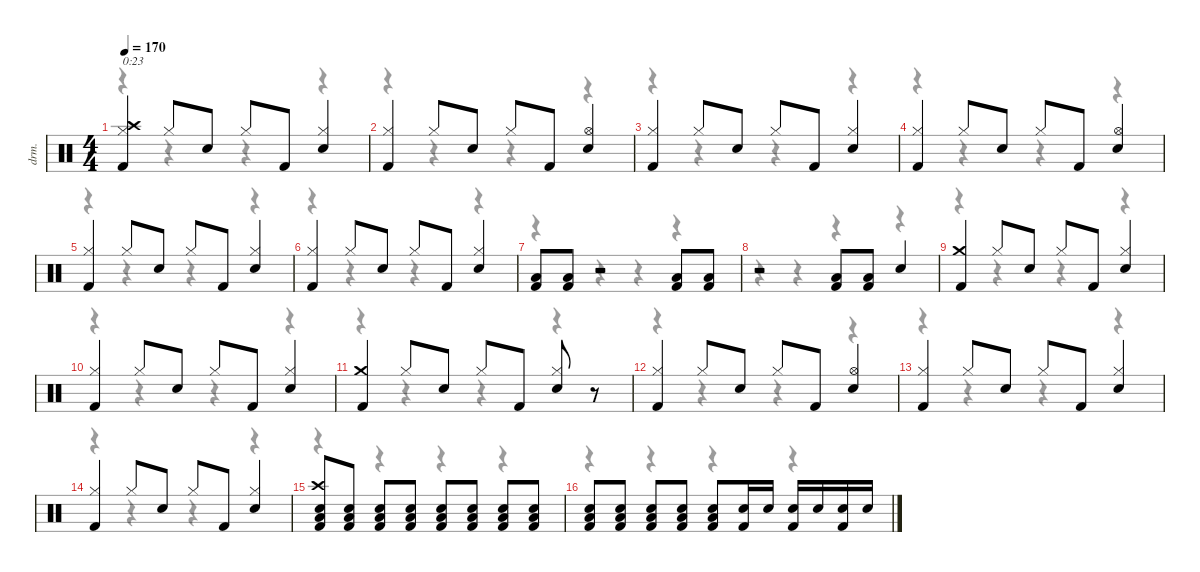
\defaultSystemsLayout 4
\hideDynamics
\bracketExtendMode nobrackets
\otherSystemsTrackNameOrientation horizontal
\track ("Drums" "drm.") {instrument percussion}
\staff {score}
\articulation defaults
\voice
\ts (4 4)
\tempo 170
\clef neutral
\ks c
("Hi-Hat (closed)" "Crash high (hit)" "Kick (hit) 2").4{txt "0:23" dy f beam Up} "Hi-Hat (closed)".8{beam Up} "Snare (hit) 2".8{beam Up} "Hi-Hat (closed)".8{beam Up} "Kick (hit) 2".8{beam Up} ("Hi-Hat (closed)" "Snare (hit) 2").4{beam Up} |
("Hi-Hat (closed)" "Kick (hit) 2").4{beam Up} "Hi-Hat (closed)".8{beam Up} "Snare (hit) 2".8{beam Up} "Hi-Hat (closed)".8{beam Up} "Kick (hit) 2".8{beam Up} ("Hi-Hat (open)" "Snare (hit) 2").4{beam Up} |
("Hi-Hat (closed)" "Kick (hit) 2").4{beam Up} "Hi-Hat (closed)".8{beam Up} "Snare (hit) 2".8{beam Up} "Hi-Hat (closed)".8{beam Up} "Kick (hit) 2".8{beam Up} ("Hi-Hat (closed)" "Snare (hit) 2").4{beam Up} |
("Hi-Hat (closed)" "Kick (hit) 2").4{beam Up} "Hi-Hat (closed)".8{beam Up} "Snare (hit) 2".8{beam Up} "Hi-Hat (closed)".8{beam Up} "Kick (hit) 2".8{beam Up} ("Hi-Hat (open)" "Snare (hit) 2").4{beam Up} |
("Hi-Hat (closed)" "Kick (hit) 2").4{beam Up} "Hi-Hat (closed)".8{beam Up} "Snare (hit) 2".8{beam Up} "Hi-Hat (closed)".8{beam Up} "Kick (hit) 2".8{beam Up} ("Hi-Hat (closed)" "Snare (hit) 2").4{beam Up} |
("Hi-Hat (closed)" "Kick (hit) 2").4{beam Up} "Hi-Hat (closed)".8{beam Up} "Snare (hit) 2".8{beam Up} "Hi-Hat (closed)".8{beam Up} "Kick (hit) 2".8{beam Up} ("Hi-Hat (closed)" "Snare (hit) 2").4{beam Up} |
("Low Floor Tom (hit)" "Kick (hit) 2").8{beam Up} ("Low Floor Tom (hit)" "Kick (hit) 2").8{beam Up} r.2{beam Up} ("Low Floor Tom (hit)" "Kick (hit) 2").8{beam Up} ("Low Floor Tom (hit)" "Kick (hit) 2").8{beam Up} |
r.2{beam Up} ("Low Floor Tom (hit)" "Kick (hit) 2").8{beam Up} ("Low Floor Tom (hit)" "Kick (hit) 2").8{beam Up} "Snare (hit) 2".4{beam Up} |
("Crash medium (hit)" "Kick (hit) 2").4{beam Up} "Hi-Hat (closed)".8{beam Up} "Snare (hit) 2".8{beam Up} "Hi-Hat (closed)".8{beam Up} "Kick (hit) 2".8{beam Up} ("Hi-Hat (closed)" "Snare (hit) 2").4{beam Up} |
("Hi-Hat (closed)" "Kick (hit) 2").4{beam Up} "Hi-Hat (closed)".8{beam Up} "Snare (hit) 2".8{beam Up} "Hi-Hat (closed)".8{beam Up} "Kick (hit) 2".8{beam Up} ("Hi-Hat (closed)" "Snare (hit) 2").4{beam Up} |
("Crash medium (hit)" "Kick (hit) 2").4{beam Up} "Hi-Hat (closed)".8{beam Up} "Snare (hit) 2".8{beam Up} "Hi-Hat (closed)".8{beam Up} "Kick (hit) 2".8{beam Up} ("Hi-Hat (closed)" "Snare (hit) 2").8{beam Up} r.8{beam Up} |
("Hi-Hat (closed)" "Kick (hit) 2").4{beam Up} "Hi-Hat (closed)".8{beam Up} "Snare (hit) 2".8{beam Up} "Hi-Hat (closed)".8{beam Up} "Kick (hit) 2".8{beam Up} ("Hi-Hat (open)" "Snare (hit) 2").4{beam Up} |
("Hi-Hat (closed)" "Kick (hit) 2").4{beam Up} "Hi-Hat (closed)".8{beam Up} "Snare (hit) 2".8{beam Up} "Hi-Hat (closed)".8{beam Up} "Kick (hit) 2".8{beam Up} ("Hi-Hat (closed)" "Snare (hit) 2").4{beam Up} |
("Hi-Hat (closed)" "Kick (hit) 2").4{beam Up} "Hi-Hat (closed)".8{beam Up} "Snare (hit) 2".8{beam Up} "Hi-Hat (closed)".8{beam Up} "Kick (hit) 2".8{beam Up} ("Hi-Hat (closed)" "Snare (hit) 2").4{beam Up} |
("Crash high (hit)" "Low Floor Tom (hit)" "Snare (hit) 2" "Kick (hit) 2").8{beam Up} ("Low Floor Tom (hit)" "Snare (hit) 2" "Kick (hit) 2").8{beam Up} ("Low Floor Tom (hit)" "Snare (hit) 2" "Kick (hit) 2").8{beam Up} ("Low Floor Tom (hit)" "Snare (hit) 2" "Kick (hit) 2").8{beam Up} ("Low Floor Tom (hit)" "Snare (hit) 2" "Kick (hit) 2").8{beam Up} ("Low Floor Tom (hit)" "Snare (hit) 2" "Kick (hit) 2").8{beam Up} ("Low Floor Tom (hit)" "Snare (hit) 2" "Kick (hit) 2").8{beam Up} ("Low Floor Tom (hit)" "Snare (hit) 2" "Kick (hit) 2").8{beam Up} |
("Low Floor Tom (hit)" "Snare (hit) 2" "Kick (hit) 2").8{beam Up} ("Low Floor Tom (hit)" "Snare (hit) 2" "Kick (hit) 2").8{beam Up} ("Low Floor Tom (hit)" "Snare (hit) 2" "Kick (hit) 2").8{beam Up} ("Low Floor Tom (hit)" "Snare (hit) 2" "Kick (hit) 2").8{beam Up} ("Low Floor Tom (hit)" "Snare (hit) 2" "Kick (hit) 2").8{beam Up} ("Snare (hit) 2" "Kick (hit) 2").16{beam Up} "Snare (hit) 2".16{beam Up} ("Snare (hit) 2" "Kick (hit) 2").16{beam Up} "Snare (hit) 2".16{beam Up} ("Snare (hit) 2" "Kick (hit) 2").16{beam Up} "Snare (hit) 2".16{beam Up}
\voice
\clef neutral
\ottava regular
\simile none
\ks c
r.4{dy mf beam Down} r.4{beam Down} r.4{beam Down} r.4{beam Down} |
r.4{beam Down} r.4{beam Down} r.4{beam Down} r.4{beam Down} |
r.4{beam Down} r.4{beam Down} r.4{beam Down} r.4{beam Down} |
r.4{beam Down} r.4{beam Down} r.4{beam Down} r.4{beam Down} |
r.4{beam Down} r.4{beam Down} r.4{beam Down} r.4{beam Down} |
r.4{beam Down} r.4{beam Down} r.4{beam Down} r.4{beam Down} |
r.4{beam Down} r.4{beam Down} r.4{beam Down} r.4{beam Down} |
r.4{beam Down} r.4{beam Down} r.4{beam Down} r.4{beam Down} |
r.4{beam Down} r.4{beam Down} r.4{beam Down} r.4{beam Down} |
r.4{beam Down} r.4{beam Down} r.4{beam Down} r.4{beam Down} |
r.4{beam Down} r.4{beam Down} r.4{beam Down} r.4{beam Down} |
r.4{beam Down} r.4{beam Down} r.4{beam Down} r.4{beam Down} |
r.4{beam Down} r.4{beam Down} r.4{beam Down} r.4{beam Down} |
r.4{beam Down} r.4{beam Down} r.4{beam Down} r.4{beam Down} |
r.4{beam Down} r.4{beam Down} r.4{beam Down} r.4{beam Down} |
r.4{beam Down} r.4{beam Down} r.4{beam Down} r.4{beam Down}
